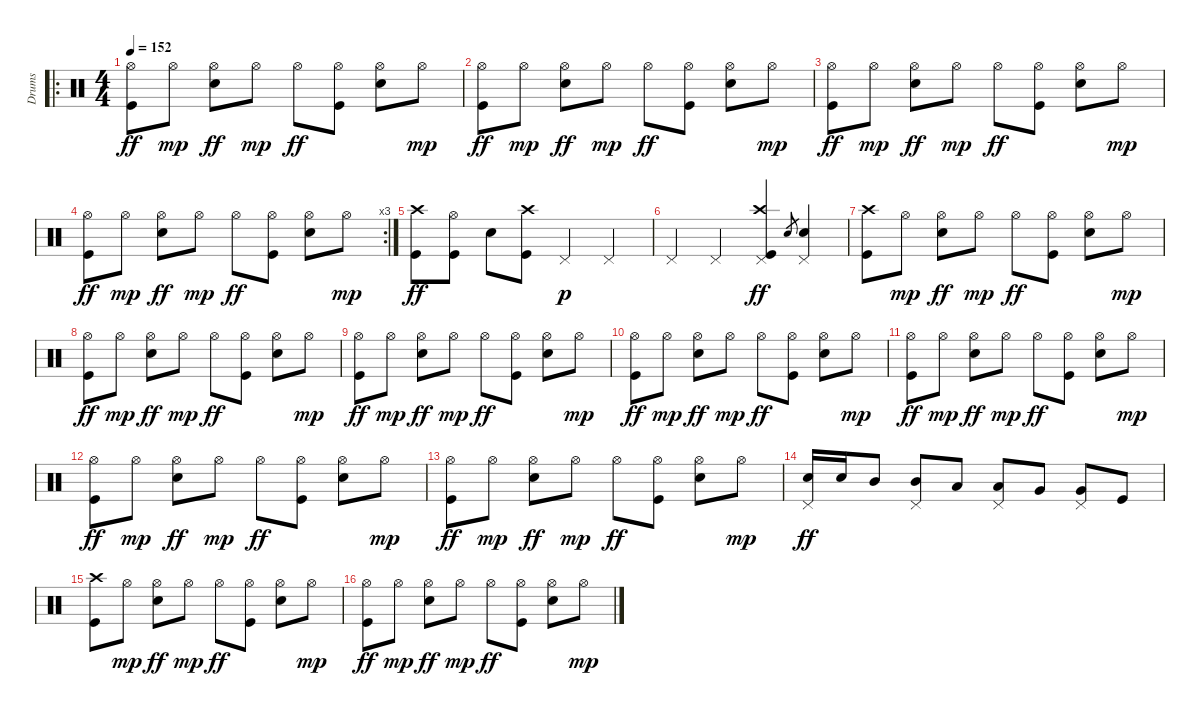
\track ("Drums" "Drums") {instrument percussion}
\staff {score}
\articulation defaults
\ro
\ts (4 4)
\tempo 152
\clef neutral
\ks c
("Hi-Hat (open)" "Kick (hit)").8{dy ff} "Hi-Hat (open)".8{dy mp} ("Hi-Hat (open)" "Snare (hit) 2").8{dy ff} "Hi-Hat (open)".8{dy mp} "Hi-Hat (open)".8{dy ff} ("Hi-Hat (open)" "Kick (hit)").8 ("Hi-Hat (open)" "Snare (hit) 2").8 "Hi-Hat (open)".8{dy mp} |
("Hi-Hat (open)" "Kick (hit)").8{dy ff} "Hi-Hat (open)".8{dy mp} ("Hi-Hat (open)" "Snare (hit) 2").8{dy ff} "Hi-Hat (open)".8{dy mp} "Hi-Hat (open)".8{dy ff} ("Hi-Hat (open)" "Kick (hit)").8 ("Hi-Hat (open)" "Snare (hit) 2").8 "Hi-Hat (open)".8{dy mp} |
("Hi-Hat (open)" "Kick (hit)").8{dy ff} "Hi-Hat (open)".8{dy mp} ("Hi-Hat (open)" "Snare (hit) 2").8{dy ff} "Hi-Hat (open)".8{dy mp} "Hi-Hat (open)".8{dy ff} ("Hi-Hat (open)" "Kick (hit)").8 ("Hi-Hat (open)" "Snare (hit) 2").8 "Hi-Hat (open)".8{dy mp} |
\rc 3
("Hi-Hat (open)" "Kick (hit)").8{dy ff} "Hi-Hat (open)".8{dy mp} ("Hi-Hat (open)" "Snare (hit) 2").8{dy ff} "Hi-Hat (open)".8{dy mp} "Hi-Hat (open)".8{dy ff} ("Hi-Hat (open)" "Kick (hit)").8 ("Hi-Hat (open)" "Snare (hit) 2").8 "Hi-Hat (open)".8{dy mp} |
("Crash high (hit)" "Kick (hit)").8{dy ff} ("Hi-Hat (open)" "Kick (hit)").8 "Snare (hit) 2".8 ("Crash high (hit)" "Kick (hit)").8 "Pedal Hi-Hat (hit)".4{dy p} "Pedal Hi-Hat (hit)".4 |
"Pedal Hi-Hat (hit)".4 "Pedal Hi-Hat (hit)".4 ("Crash high (hit)" "Pedal Hi-Hat (hit)" "Kick (hit)").4{dy ff} "Snare (hit) 2".8{gr} ("Pedal Hi-Hat (hit)" "Snare (hit) 2").4 |
("Crash high (hit)" "Kick (hit)").8 "Hi-Hat (open)".8{dy mp} ("Hi-Hat (open)" "Snare (hit) 2").8{dy ff} "Hi-Hat (open)".8{dy mp} "Hi-Hat (open)".8{dy ff} ("Hi-Hat (open)" "Kick (hit)").8 ("Hi-Hat (open)" "Snare (hit) 2").8 "Hi-Hat (open)".8{dy mp} |
("Hi-Hat (open)" "Kick (hit)").8{dy ff} "Hi-Hat (open)".8{dy mp} ("Hi-Hat (open)" "Snare (hit) 2").8{dy ff} "Hi-Hat (open)".8{dy mp} "Hi-Hat (open)".8{dy ff} ("Hi-Hat (open)" "Kick (hit)").8 ("Hi-Hat (open)" "Snare (hit) 2").8 "Hi-Hat (open)".8{dy mp} |
("Hi-Hat (open)" "Kick (hit)").8{dy ff} "Hi-Hat (open)".8{dy mp} ("Hi-Hat (open)" "Snare (hit) 2").8{dy ff} "Hi-Hat (open)".8{dy mp} "Hi-Hat (open)".8{dy ff} ("Hi-Hat (open)" "Kick (hit)").8 ("Hi-Hat (open)" "Snare (hit) 2").8 "Hi-Hat (open)".8{dy mp} |
("Hi-Hat (open)" "Kick (hit)").8{dy ff} "Hi-Hat (open)".8{dy mp} ("Hi-Hat (open)" "Snare (hit) 2").8{dy ff} "Hi-Hat (open)".8{dy mp} "Hi-Hat (open)".8{dy ff} ("Hi-Hat (open)" "Kick (hit)").8 ("Hi-Hat (open)" "Snare (hit) 2").8 "Hi-Hat (open)".8{dy mp} |
("Hi-Hat (open)" "Kick (hit)").8{dy ff} "Hi-Hat (open)".8{dy mp} ("Hi-Hat (open)" "Snare (hit) 2").8{dy ff} "Hi-Hat (open)".8{dy mp} "Hi-Hat (open)".8{dy ff} ("Hi-Hat (open)" "Kick (hit)").8 ("Hi-Hat (open)" "Snare (hit) 2").8 "Hi-Hat (open)".8{dy mp} |
("Hi-Hat (open)" "Kick (hit)").8{dy ff} "Hi-Hat (open)".8{dy mp} ("Hi-Hat (open)" "Snare (hit) 2").8{dy ff} "Hi-Hat (open)".8{dy mp} "Hi-Hat (open)".8{dy ff} ("Hi-Hat (open)" "Kick (hit)").8 ("Hi-Hat (open)" "Snare (hit) 2").8 "Hi-Hat (open)".8{dy mp} |
("Hi-Hat (open)" "Kick (hit)").8{dy ff} "Hi-Hat (open)".8{dy mp} ("Hi-Hat (open)" "Snare (hit) 2").8{dy ff} "Hi-Hat (open)".8{dy mp} "Hi-Hat (open)".8{dy ff} ("Hi-Hat (open)" "Kick (hit)").8 ("Hi-Hat (open)" "Snare (hit) 2").8 "Hi-Hat (open)".8{dy mp} |
("Pedal Hi-Hat (hit)" "Snare (hit) 2").16{dy ff} "Snare (hit) 2".16 "Mid Tom (hit)".8 ("Pedal Hi-Hat (hit)" "Mid Tom (hit)").8 "Low Tom (hit)".8 ("Pedal Hi-Hat (hit)" "Low Tom (hit)").8 "Very Low Tom (hit)".8 ("Pedal Hi-Hat (hit)" "Very Low Tom (hit)").8 "Kick (hit)".8 |
("Crash high (hit)" "Kick (hit)").8 "Hi-Hat (open)".8{dy mp} ("Hi-Hat (open)" "Snare (hit) 2").8{dy ff} "Hi-Hat (open)".8{dy mp} "Hi-Hat (open)".8{dy ff} ("Hi-Hat (open)" "Kick (hit)").8 ("Hi-Hat (open)" "Snare (hit) 2").8 "Hi-Hat (open)".8{dy mp} |
("Hi-Hat (open)" "Kick (hit)").8{dy ff} "Hi-Hat (open)".8{dy mp} ("Hi-Hat (open)" "Snare (hit) 2").8{dy ff} "Hi-Hat (open)".8{dy mp} "Hi-Hat (open)".8{dy ff} ("Hi-Hat (open)" "Kick (hit)").8 ("Hi-Hat (open)" "Snare (hit) 2").8 "Hi-Hat (open)".8{dy mp}
